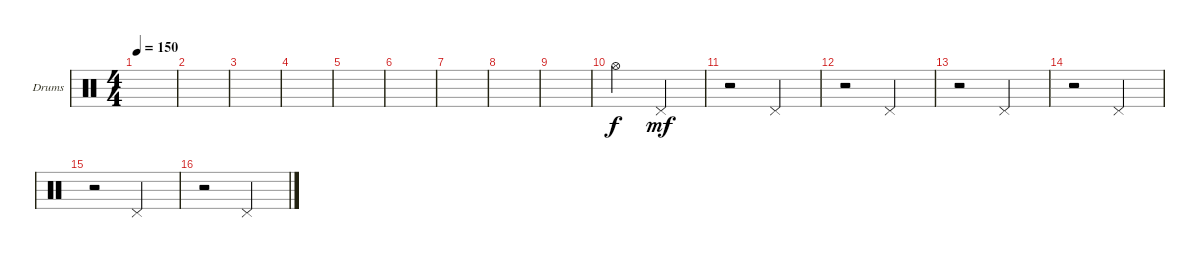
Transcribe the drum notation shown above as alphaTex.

\bracketExtendMode groupsimilarinstruments
\firstSystemTrackNameOrientation horizontal
\otherSystemsTrackNameOrientation horizontal
\track ("Drumkit" "Drums") {instrument percussion}
\staff {score}
\articulation defaults
\ts (4 4)
\tempo 150
\clef neutral
\ks c
|
|
|
|
|
|
|
|
|
"Hi-Hat (open)".2 "Pedal Hi-Hat (hit)".2{dy mf} |
r.2 "Pedal Hi-Hat (hit)".2 |
r.2 "Pedal Hi-Hat (hit)".2 |
r.2 "Pedal Hi-Hat (hit)".2 |
r.2 "Pedal Hi-Hat (hit)".2 |
r.2 "Pedal Hi-Hat (hit)".2 |
r.2 "Pedal Hi-Hat (hit)".2
